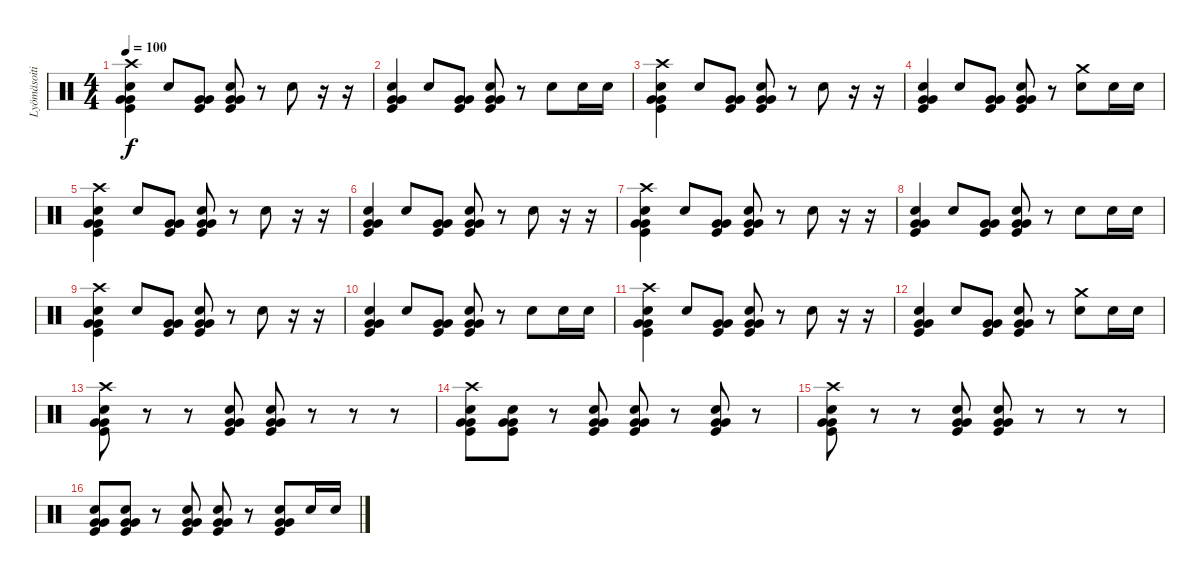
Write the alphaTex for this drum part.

\track ("Lyömäsoitin" "Lyömäsoiti") {instrument percussion}
\staff {score}
\articulation defaults
\ts (4 4)
\tempo 100
\clef neutral
\ks c
("Crash high (hit)" "Snare (hit) 2" "Very Low Tom (hit)" "Very Low Tom (hit)" "Kick (hit)").4{dy f} "Snare (hit) 2".8 ("Very Low Tom (hit)" "Very Low Tom (hit)" "Kick (hit)").8 ("Snare (hit) 2" "Very Low Tom (hit)" "Very Low Tom (hit)" "Kick (hit)").8 r.8 "Snare (hit) 2".8 r.16 r.16 |
("Snare (hit) 2" "Very Low Tom (hit)" "Very Low Tom (hit)" "Kick (hit)").4 "Snare (hit) 2".8 ("Very Low Tom (hit)" "Very Low Tom (hit)" "Kick (hit)").8 ("Snare (hit) 2" "Very Low Tom (hit)" "Very Low Tom (hit)" "Kick (hit)").8 r.8 "Snare (hit) 2".8 "Snare (hit) 2".16 "Snare (hit) 2".16 |
("Crash high (hit)" "Snare (hit) 2" "Very Low Tom (hit)" "Very Low Tom (hit)" "Kick (hit)").4 "Snare (hit) 2".8 ("Very Low Tom (hit)" "Very Low Tom (hit)" "Kick (hit)").8 ("Snare (hit) 2" "Very Low Tom (hit)" "Very Low Tom (hit)" "Kick (hit)").8 r.8 "Snare (hit) 2".8 r.16 r.16 |
("Snare (hit) 2" "Very Low Tom (hit)" "Very Low Tom (hit)" "Kick (hit)").4 "Snare (hit) 2".8 ("Very Low Tom (hit)" "Very Low Tom (hit)" "Kick (hit)").8 ("Snare (hit) 2" "Very Low Tom (hit)" "Very Low Tom (hit)" "Kick (hit)").8 r.8 ("Crash medium (hit)" "Snare (hit) 2").8 "Snare (hit) 2".16 "Snare (hit) 2".16 |
("Crash high (hit)" "Snare (hit) 2" "Very Low Tom (hit)" "Very Low Tom (hit)" "Kick (hit)").4 "Snare (hit) 2".8 ("Very Low Tom (hit)" "Very Low Tom (hit)" "Kick (hit)").8 ("Snare (hit) 2" "Very Low Tom (hit)" "Very Low Tom (hit)" "Kick (hit)").8 r.8 "Snare (hit) 2".8 r.16 r.16 |
("Snare (hit) 2" "Very Low Tom (hit)" "Very Low Tom (hit)" "Kick (hit)").4 "Snare (hit) 2".8 ("Very Low Tom (hit)" "Very Low Tom (hit)" "Kick (hit)").8 ("Snare (hit) 2" "Very Low Tom (hit)" "Very Low Tom (hit)" "Kick (hit)").8 r.8 "Snare (hit) 2".8 r.16 r.16 |
("Crash high (hit)" "Snare (hit) 2" "Very Low Tom (hit)" "Very Low Tom (hit)" "Kick (hit)").4 "Snare (hit) 2".8 ("Very Low Tom (hit)" "Very Low Tom (hit)" "Kick (hit)").8 ("Snare (hit) 2" "Very Low Tom (hit)" "Very Low Tom (hit)" "Kick (hit)").8 r.8 "Snare (hit) 2".8 r.16 r.16 |
("Snare (hit) 2" "Very Low Tom (hit)" "Very Low Tom (hit)" "Kick (hit)").4 "Snare (hit) 2".8 ("Very Low Tom (hit)" "Very Low Tom (hit)" "Kick (hit)").8 ("Snare (hit) 2" "Very Low Tom (hit)" "Very Low Tom (hit)" "Kick (hit)").8 r.8 "Snare (hit) 2".8 "Snare (hit) 2".16 "Snare (hit) 2".16 |
("Crash high (hit)" "Snare (hit) 2" "Very Low Tom (hit)" "Very Low Tom (hit)" "Kick (hit)").4 "Snare (hit) 2".8 ("Very Low Tom (hit)" "Very Low Tom (hit)" "Kick (hit)").8 ("Snare (hit) 2" "Very Low Tom (hit)" "Very Low Tom (hit)" "Kick (hit)").8 r.8 "Snare (hit) 2".8 r.16 r.16 |
("Snare (hit) 2" "Very Low Tom (hit)" "Very Low Tom (hit)" "Kick (hit)").4 "Snare (hit) 2".8 ("Very Low Tom (hit)" "Very Low Tom (hit)" "Kick (hit)").8 ("Snare (hit) 2" "Very Low Tom (hit)" "Very Low Tom (hit)" "Kick (hit)").8 r.8 "Snare (hit) 2".8 "Snare (hit) 2".16 "Snare (hit) 2".16 |
("Crash high (hit)" "Snare (hit) 2" "Very Low Tom (hit)" "Very Low Tom (hit)" "Kick (hit)").4 "Snare (hit) 2".8 ("Very Low Tom (hit)" "Very Low Tom (hit)" "Kick (hit)").8 ("Snare (hit) 2" "Very Low Tom (hit)" "Very Low Tom (hit)" "Kick (hit)").8 r.8 "Snare (hit) 2".8 r.16 r.16 |
("Snare (hit) 2" "Very Low Tom (hit)" "Very Low Tom (hit)" "Kick (hit)").4 "Snare (hit) 2".8 ("Very Low Tom (hit)" "Very Low Tom (hit)" "Kick (hit)").8 ("Snare (hit) 2" "Very Low Tom (hit)" "Very Low Tom (hit)" "Kick (hit)").8 r.8 ("Crash medium (hit)" "Snare (hit) 2").8 "Snare (hit) 2".16 "Snare (hit) 2".16 |
("Crash high (hit)" "Snare (hit) 2" "Very Low Tom (hit)" "Very Low Tom (hit)" "Kick (hit)").8 r.8 r.8 ("Snare (hit) 2" "Very Low Tom (hit)" "Very Low Tom (hit)" "Kick (hit)").8 ("Snare (hit) 2" "Very Low Tom (hit)" "Very Low Tom (hit)" "Kick (hit)").8 r.8 r.8 r.8 |
("Crash high (hit)" "Snare (hit) 2" "Very Low Tom (hit)" "Very Low Tom (hit)" "Kick (hit)").8 ("Snare (hit) 2" "Very Low Tom (hit)" "Very Low Tom (hit)" "Kick (hit)").8 r.8 ("Snare (hit) 2" "Very Low Tom (hit)" "Very Low Tom (hit)" "Kick (hit)").8 ("Snare (hit) 2" "Very Low Tom (hit)" "Very Low Tom (hit)" "Kick (hit)").8 r.8 ("Snare (hit) 2" "Very Low Tom (hit)" "Very Low Tom (hit)" "Kick (hit)").8 r.8 |
("Crash high (hit)" "Snare (hit) 2" "Very Low Tom (hit)" "Very Low Tom (hit)" "Kick (hit)").8 r.8 r.8 ("Snare (hit) 2" "Very Low Tom (hit)" "Very Low Tom (hit)" "Kick (hit)").8 ("Snare (hit) 2" "Very Low Tom (hit)" "Very Low Tom (hit)" "Kick (hit)").8 r.8 r.8 r.8 |
("Snare (hit) 2" "Very Low Tom (hit)" "Very Low Tom (hit)" "Kick (hit)").8 ("Snare (hit) 2" "Very Low Tom (hit)" "Very Low Tom (hit)" "Kick (hit)").8 r.8 ("Snare (hit) 2" "Very Low Tom (hit)" "Very Low Tom (hit)" "Kick (hit)").8 ("Snare (hit) 2" "Very Low Tom (hit)" "Very Low Tom (hit)" "Kick (hit)").8 r.8 ("Snare (hit) 2" "Very Low Tom (hit)" "Very Low Tom (hit)" "Kick (hit)").8 "Snare (hit) 2".16 "Snare (hit) 2".16
